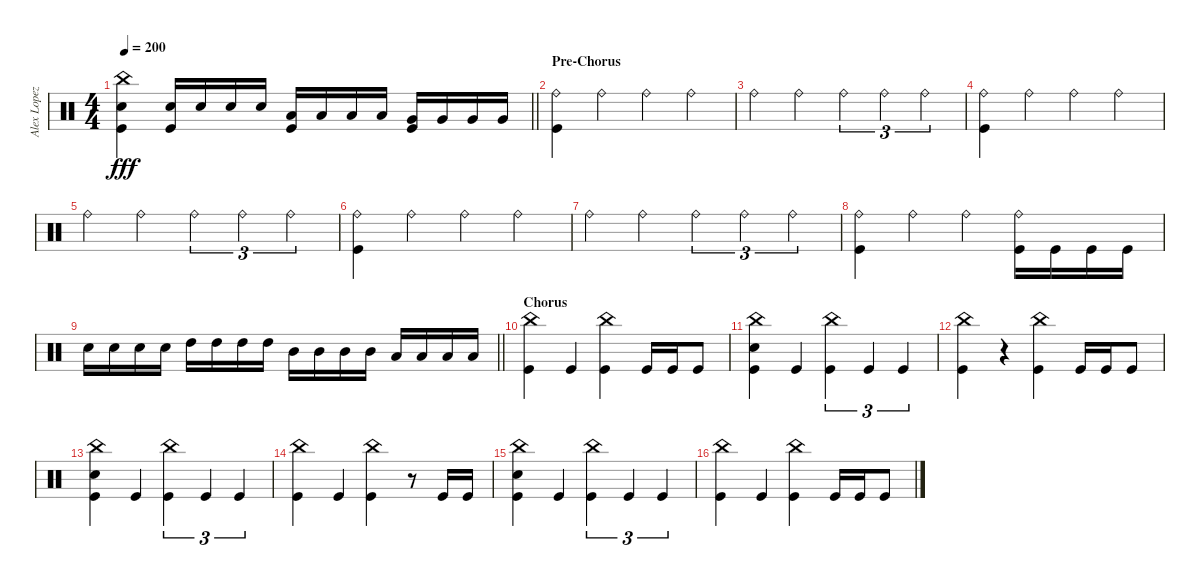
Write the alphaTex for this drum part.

\track ("Alex Lopez" "Alex Lopez") {instrument percussion}
\staff {score}
\articulation defaults
\ts (4 4)
\tempo 200
\clef neutral
\barLineRight lightlight
\ks c
("China (hit)" "Snare (hit) 2" "Kick (hit)").4{dy fff} ("Snare (hit) 2" "Kick (hit)").16 "Snare (hit) 2".16 "Snare (hit) 2".16 "Snare (hit) 2".16 ("Low Tom (hit)" "Kick (hit)").16 "Low Tom (hit)".16 "Low Tom (hit)".16 "Low Tom (hit)".16 ("Very Low Tom (hit)" "Kick (hit)").16 "Very Low Tom (hit)".16 "Very Low Tom (hit)".16 "Very Low Tom (hit)".16 |
\section ("" "Pre-Chorus")
("Ride (bell)" "Kick (hit)").4 "Ride (bell)".4 "Ride (bell)".4 "Ride (bell)".4 |
"Ride (bell)".4 "Ride (bell)".4 "Ride (bell)".4{tu (3 2)} "Ride (bell)".4{tu (3 2)} "Ride (bell)".4{tu (3 2)} |
("Ride (bell)" "Kick (hit)").4 "Ride (bell)".4 "Ride (bell)".4 "Ride (bell)".4 |
"Ride (bell)".4 "Ride (bell)".4 "Ride (bell)".4{tu (3 2)} "Ride (bell)".4{tu (3 2)} "Ride (bell)".4{tu (3 2)} |
("Ride (bell)" "Kick (hit)").4 "Ride (bell)".4 "Ride (bell)".4 "Ride (bell)".4 |
"Ride (bell)".4 "Ride (bell)".4 "Ride (bell)".4{tu (3 2)} "Ride (bell)".4{tu (3 2)} "Ride (bell)".4{tu (3 2)} |
("Ride (bell)" "Kick (hit)").4 "Ride (bell)".4 "Ride (bell)".4 ("Ride (bell)" "Kick (hit)").16 "Kick (hit)".16 "Kick (hit)".16 "Kick (hit)".16 |
\barLineRight lightlight "Snare (hit) 2".16 "Snare (hit) 2".16 "Snare (hit) 2".16 "Snare (hit) 2".16 "High Tom (hit)".16 "High Tom (hit)".16 "High Tom (hit)".16 "High Tom (hit)".16 "Mid Tom (hit)".16 "Mid Tom (hit)".16 "Mid Tom (hit)".16 "Mid Tom (hit)".16 "Low Tom (hit)".16 "Low Tom (hit)".16 "Low Tom (hit)".16 "Low Tom (hit)".16
|
\section ("" "Chorus")
("China (hit)" "Kick (hit)").4 "Kick (hit)".4 ("China (hit)" "Kick (hit)").4 "Kick (hit)".16 "Kick (hit)".16 "Kick (hit)".8 |
("China (hit)" "Snare (hit) 2" "Kick (hit)").4 "Kick (hit)".4 ("China (hit)" "Kick (hit)").4{tu (3 2)} "Kick (hit)".4{tu (3 2)} "Kick (hit)".4{tu (3 2)} |
("China (hit)" "Kick (hit)").4 r.4 ("China (hit)" "Kick (hit)").4 "Kick (hit)".16 "Kick (hit)".16 "Kick (hit)".8 |
("China (hit)" "Snare (hit) 2" "Kick (hit)").4 "Kick (hit)".4 ("China (hit)" "Kick (hit)").4{tu (3 2)} "Kick (hit)".4{tu (3 2)} "Kick (hit)".4{tu (3 2)} |
("China (hit)" "Kick (hit)").4 "Kick (hit)".4 ("China (hit)" "Kick (hit)").4 r.8 "Kick (hit)".16 "Kick (hit)".16 |
("China (hit)" "Snare (hit) 2" "Kick (hit)").4 "Kick (hit)".4 ("China (hit)" "Kick (hit)").4{tu (3 2)} "Kick (hit)".4{tu (3 2)} "Kick (hit)".4{tu (3 2)} |
("China (hit)" "Kick (hit)").4 "Kick (hit)".4 ("China (hit)" "Kick (hit)").4 "Kick (hit)".16 "Kick (hit)".16 "Kick (hit)".8
